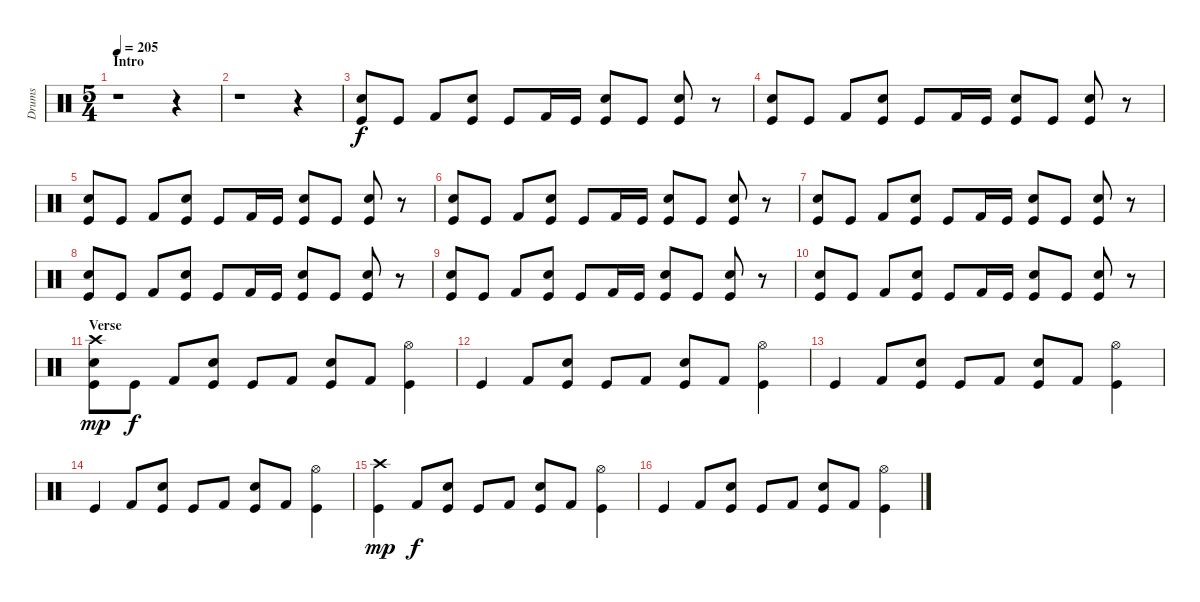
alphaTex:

\track ("Drums" "Drums") {instrument percussion}
\staff {score}
\articulation defaults
\ts (5 4)
\section ("" "Intro")
\tempo 205
\clef neutral
\ks c
r.1{dy f} r.4 |
r.1 r.4 |
("Snare (hit) 2" "Kick (hit)").8 "Kick (hit)".8 "Kick (hit) 2".8 ("Snare (hit) 2" "Kick (hit)").8 "Kick (hit)".8 "Kick (hit) 2".16 "Kick (hit)".16 ("Snare (hit) 2" "Kick (hit)").8 "Kick (hit)".8 ("Snare (hit) 2" "Kick (hit)").8 r.8 |
("Snare (hit) 2" "Kick (hit)").8 "Kick (hit)".8 "Kick (hit) 2".8 ("Snare (hit) 2" "Kick (hit)").8 "Kick (hit)".8 "Kick (hit) 2".16 "Kick (hit)".16 ("Snare (hit) 2" "Kick (hit)").8 "Kick (hit)".8 ("Snare (hit) 2" "Kick (hit)").8 r.8 |
("Snare (hit) 2" "Kick (hit)").8 "Kick (hit)".8 "Kick (hit) 2".8 ("Snare (hit) 2" "Kick (hit)").8 "Kick (hit)".8 "Kick (hit) 2".16 "Kick (hit)".16 ("Snare (hit) 2" "Kick (hit)").8 "Kick (hit)".8 ("Snare (hit) 2" "Kick (hit)").8 r.8 |
("Snare (hit) 2" "Kick (hit)").8 "Kick (hit)".8 "Kick (hit) 2".8 ("Snare (hit) 2" "Kick (hit)").8 "Kick (hit)".8 "Kick (hit) 2".16 "Kick (hit)".16 ("Snare (hit) 2" "Kick (hit)").8 "Kick (hit)".8 ("Snare (hit) 2" "Kick (hit)").8 r.8 |
("Snare (hit) 2" "Kick (hit)").8 "Kick (hit)".8 "Kick (hit) 2".8 ("Snare (hit) 2" "Kick (hit)").8 "Kick (hit)".8 "Kick (hit) 2".16 "Kick (hit)".16 ("Snare (hit) 2" "Kick (hit)").8 "Kick (hit)".8 ("Snare (hit) 2" "Kick (hit)").8 r.8 |
("Snare (hit) 2" "Kick (hit)").8 "Kick (hit)".8 "Kick (hit) 2".8 ("Snare (hit) 2" "Kick (hit)").8 "Kick (hit)".8 "Kick (hit) 2".16 "Kick (hit)".16 ("Snare (hit) 2" "Kick (hit)").8 "Kick (hit)".8 ("Snare (hit) 2" "Kick (hit)").8 r.8 |
("Snare (hit) 2" "Kick (hit)").8 "Kick (hit)".8 "Kick (hit) 2".8 ("Snare (hit) 2" "Kick (hit)").8 "Kick (hit)".8 "Kick (hit) 2".16 "Kick (hit)".16 ("Snare (hit) 2" "Kick (hit)").8 "Kick (hit)".8 ("Snare (hit) 2" "Kick (hit)").8 r.8 |
("Snare (hit) 2" "Kick (hit)").8 "Kick (hit)".8 "Kick (hit) 2".8 ("Snare (hit) 2" "Kick (hit)").8 "Kick (hit)".8 "Kick (hit) 2".16 "Kick (hit)".16 ("Snare (hit) 2" "Kick (hit)").8 "Kick (hit)".8 ("Snare (hit) 2" "Kick (hit)").8 r.8 |
\section ("" "Verse")
("Crash high (hit)" "Snare (hit) 2" "Kick (hit)").8{dy mp} "Kick (hit)".8{dy f} "Kick (hit) 2".8 ("Snare (hit) 2" "Kick (hit)").8 "Kick (hit)".8 "Kick (hit) 2".8 ("Snare (hit) 2" "Kick (hit)").8 "Kick (hit) 2".8 ("Hi-Hat (open)" "Kick (hit)").4 |
"Kick (hit)".4 "Kick (hit) 2".8 ("Snare (hit) 2" "Kick (hit)").8 "Kick (hit)".8 "Kick (hit) 2".8 ("Snare (hit) 2" "Kick (hit)").8 "Kick (hit) 2".8 ("Hi-Hat (open)" "Kick (hit)").4 |
"Kick (hit)".4 "Kick (hit) 2".8 ("Snare (hit) 2" "Kick (hit)").8 "Kick (hit)".8 "Kick (hit) 2".8 ("Snare (hit) 2" "Kick (hit)").8 "Kick (hit) 2".8 ("Hi-Hat (open)" "Kick (hit)").4 |
"Kick (hit)".4 "Kick (hit) 2".8 ("Snare (hit) 2" "Kick (hit)").8 "Kick (hit)".8 "Kick (hit) 2".8 ("Snare (hit) 2" "Kick (hit)").8 "Kick (hit) 2".8 ("Hi-Hat (open)" "Kick (hit)").4 |
("Crash high (hit)" "Kick (hit)").4{dy mp} "Kick (hit) 2".8{dy f} ("Snare (hit) 2" "Kick (hit)").8 "Kick (hit)".8 "Kick (hit) 2".8 ("Snare (hit) 2" "Kick (hit)").8 "Kick (hit) 2".8 ("Hi-Hat (open)" "Kick (hit)").4 |
"Kick (hit)".4 "Kick (hit) 2".8 ("Snare (hit) 2" "Kick (hit)").8 "Kick (hit)".8 "Kick (hit) 2".8 ("Snare (hit) 2" "Kick (hit)").8 "Kick (hit) 2".8 ("Hi-Hat (open)" "Kick (hit)").4
